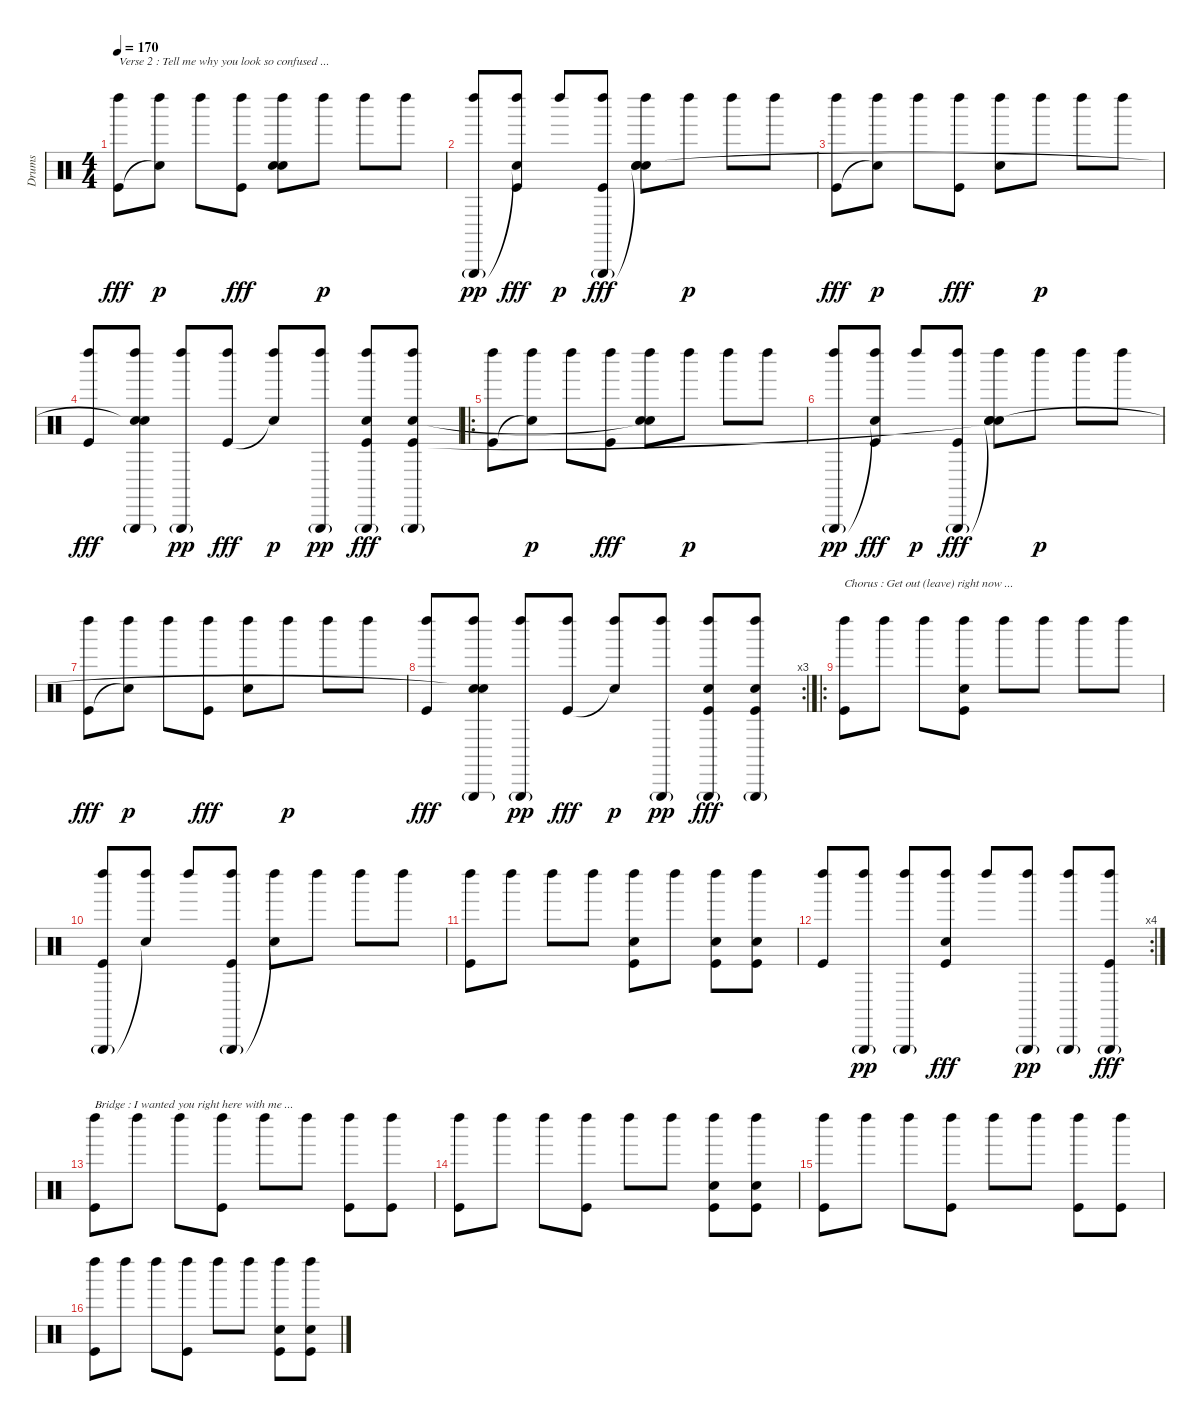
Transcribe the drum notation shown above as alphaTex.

\track ("Drums" "Drums") {instrument percussion}
\staff {score}
\articulation defaults
\ts (4 4)
\tempo 170
\clef neutral
\ks c
("Left Maraca (hit)" "Kick (hit)").8{txt "Verse 2 : Tell me why you look so confused ..." dy fff} ("Left Maraca (hit)" "Snare (hit)"{t}).8{dy p} "Left Maraca (hit)".8 ("Left Maraca (hit)" "Kick (hit)").8{dy fff} ("Left Maraca (hit)" "Hand Clap (hit)" "Snare (hit)"{t}).8 "Left Maraca (hit)".8{dy p} "Left Maraca (hit)".8 "Left Maraca (hit)".8 |
("Left Maraca (hit)" "Triangle (hit)"{g}).8{dy pp} ("Left Maraca (hit)" "Snare (hit)"{t} "Kick (hit)").8{dy fff} "Left Maraca (hit)".8{dy p} ("Left Maraca (hit)" "Triangle (hit)"{g} "Kick (hit)").8{dy fff} ("Left Maraca (hit)" "Snare (hit)"{t} "Hand Clap (hit)" "Snare (hit)").8 "Left Maraca (hit)".8{dy p} "Left Maraca (hit)".8 "Left Maraca (hit)".8 |
("Left Maraca (hit)" "Kick (hit)").8{dy fff} ("Left Maraca (hit)" "Snare (hit)"{t}).8{dy p} "Left Maraca (hit)".8 ("Left Maraca (hit)" "Kick (hit)").8{dy fff} ("Left Maraca (hit)" "Hand Clap (hit)").8 "Left Maraca (hit)".8{dy p} "Left Maraca (hit)".8 "Left Maraca (hit)".8 |
("Left Maraca (hit)" "Kick (hit)").8{dy fff} ("Left Maraca (hit)" "Triangle (hit)"{g} "Hand Clap (hit)" "Snare (hit)"{t}).8 ("Left Maraca (hit)" "Triangle (hit)"{g}).8{dy pp} ("Left Maraca (hit)" "Kick (hit)").8{dy fff} ("Left Maraca (hit)" "Snare (hit)"{t}).8{dy p} ("Left Maraca (hit)" "Triangle (hit)"{g}).8{dy pp} ("Left Maraca (hit)" "Triangle (hit)"{g} "Hand Clap (hit)" "Kick (hit)").8{dy fff} ("Left Maraca (hit)" "Triangle (hit)"{g} "Hand Clap (hit)" "Kick (hit)").8 |
\ro
("Left Maraca (hit)" "Kick (hit)").8 ("Left Maraca (hit)" "Snare (hit)"{t}).8{dy p} "Left Maraca (hit)".8 ("Left Maraca (hit)" "Kick (hit)").8{dy fff} ("Left Maraca (hit)" "Hand Clap (hit)" "Snare (hit)"{t}).8 "Left Maraca (hit)".8{dy p} "Left Maraca (hit)".8 "Left Maraca (hit)".8 |
("Left Maraca (hit)" "Triangle (hit)"{g}).8{dy pp} ("Left Maraca (hit)" "Snare (hit)"{t} "Kick (hit)").8{dy fff} "Left Maraca (hit)".8{dy p} ("Left Maraca (hit)" "Triangle (hit)"{g} "Kick (hit)").8{dy fff} ("Left Maraca (hit)" "Snare (hit)"{t} "Hand Clap (hit)" "Snare (hit)"{t}).8 "Left Maraca (hit)".8{dy p} "Left Maraca (hit)".8 "Left Maraca (hit)".8 |
("Left Maraca (hit)" "Kick (hit)").8{dy fff} ("Left Maraca (hit)" "Snare (hit)"{t}).8{dy p} "Left Maraca (hit)".8 ("Left Maraca (hit)" "Kick (hit)").8{dy fff} ("Left Maraca (hit)" "Hand Clap (hit)").8 "Left Maraca (hit)".8{dy p} "Left Maraca (hit)".8 "Left Maraca (hit)".8 |
\rc 3
("Left Maraca (hit)" "Kick (hit)").8{dy fff} ("Left Maraca (hit)" "Triangle (hit)"{g} "Hand Clap (hit)" "Snare (hit)"{t}).8 ("Left Maraca (hit)" "Triangle (hit)"{g}).8{dy pp} ("Left Maraca (hit)" "Kick (hit)").8{dy fff} ("Left Maraca (hit)" "Snare (hit)"{t}).8{dy p} ("Left Maraca (hit)" "Triangle (hit)"{g}).8{dy pp} ("Left Maraca (hit)" "Triangle (hit)"{g} "Hand Clap (hit)" "Kick (hit)").8{dy fff} ("Left Maraca (hit)" "Triangle (hit)"{g} "Hand Clap (hit)" "Kick (hit)").8 |
\ro
("Left Maraca (hit)" "Kick (hit)").8{txt "Chorus : Get out (leave) right now ..."} "Left Maraca (hit)".8 "Left Maraca (hit)".8 ("Left Maraca (hit)" "Hand Clap (hit)" "Kick (hit)").8 "Left Maraca (hit)".8 "Left Maraca (hit)".8 "Left Maraca (hit)".8 "Left Maraca (hit)".8 |
("Left Maraca (hit)" "Triangle (hit)"{g} "Kick (hit)").8 ("Left Maraca (hit)" "Snare (hit)"{t}).8 "Left Maraca (hit)".8 ("Left Maraca (hit)" "Triangle (hit)"{g} "Kick (hit)").8 ("Left Maraca (hit)" "Snare (hit)"{t}).8 "Left Maraca (hit)".8 "Left Maraca (hit)".8 "Left Maraca (hit)".8 |
("Left Maraca (hit)" "Kick (hit)").8 "Left Maraca (hit)".8 "Left Maraca (hit)".8 "Left Maraca (hit)".8 ("Left Maraca (hit)" "Hand Clap (hit)" "Kick (hit)").8 "Left Maraca (hit)".8 ("Left Maraca (hit)" "Hand Clap (hit)" "Kick (hit)").8 ("Left Maraca (hit)" "Hand Clap (hit)" "Kick (hit)").8 |
\rc 4
("Left Maraca (hit)" "Kick (hit)").8 ("Left Maraca (hit)" "Triangle (hit)"{g}).8{dy pp} ("Left Maraca (hit)" "Triangle (hit)"{g}).8 ("Left Maraca (hit)" "Hand Clap (hit)" "Kick (hit)").8{dy fff} "Left Maraca (hit)".8 ("Left Maraca (hit)" "Triangle (hit)"{g}).8{dy pp} ("Left Maraca (hit)" "Triangle (hit)"{g}).8 ("Left Maraca (hit)" "Triangle (hit)"{g} "Kick (hit)").8{dy fff} |
("Left Maraca (hit)" "Kick (hit)").8{txt "Bridge : I wanted you right here with me ..."} "Left Maraca (hit)".8 "Left Maraca (hit)".8 ("Left Maraca (hit)" "Kick (hit)").8 "Left Maraca (hit)".8 "Left Maraca (hit)".8 ("Left Maraca (hit)" "Kick (hit)").8 ("Left Maraca (hit)" "Kick (hit)").8 |
("Left Maraca (hit)" "Kick (hit)").8 "Left Maraca (hit)".8 "Left Maraca (hit)".8 ("Left Maraca (hit)" "Kick (hit)").8 "Left Maraca (hit)".8 "Left Maraca (hit)".8 ("Left Maraca (hit)" "Hand Clap (hit)" "Kick (hit)").8 ("Left Maraca (hit)" "Hand Clap (hit)" "Kick (hit)").8 |
("Left Maraca (hit)" "Kick (hit)").8 "Left Maraca (hit)".8 "Left Maraca (hit)".8 ("Left Maraca (hit)" "Kick (hit)").8 "Left Maraca (hit)".8 "Left Maraca (hit)".8 ("Left Maraca (hit)" "Kick (hit)").8 ("Left Maraca (hit)" "Kick (hit)").8 |
("Left Maraca (hit)" "Kick (hit)").8 "Left Maraca (hit)".8 "Left Maraca (hit)".8 ("Left Maraca (hit)" "Kick (hit)").8 "Left Maraca (hit)".8 "Left Maraca (hit)".8 ("Left Maraca (hit)" "Hand Clap (hit)" "Kick (hit)").8 ("Left Maraca (hit)" "Hand Clap (hit)" "Kick (hit)").8
